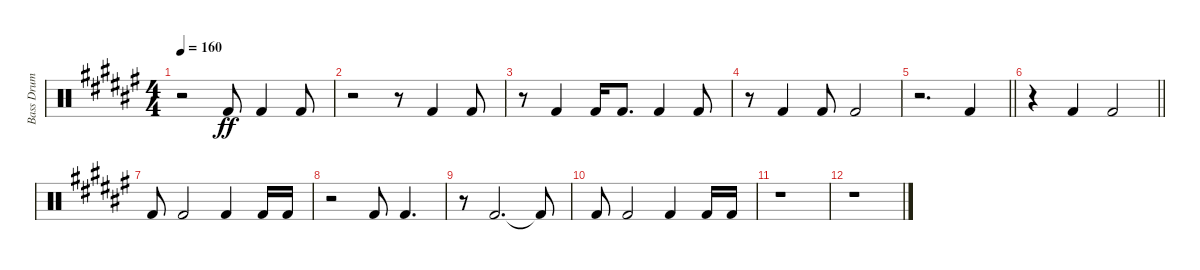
\track ("Bass Drum" "Bass Drum") {instrument percussion}
\staff {score}
\articulation defaults
\ts (4 4)
\tempo 160
\clef neutral
\ks d#minor
r.2{dy ff} "Kick (hit) 2".8 "Kick (hit) 2".4 "Kick (hit) 2".8 |
r.2 r.8 "Kick (hit) 2".4 "Kick (hit) 2".8 |
r.8 "Kick (hit) 2".4 "Kick (hit) 2".16 "Kick (hit) 2".8{d} "Kick (hit) 2".4 "Kick (hit) 2".8 |
r.8 "Kick (hit) 2".4 "Kick (hit) 2".8 "Kick (hit) 2".2 |
\barLineRight lightlight
r.2{d} "Kick (hit) 2".4 |
\barLineRight lightlight
r.4 "Kick (hit) 2".4 "Kick (hit) 2".2 |
"Kick (hit) 2".8 "Kick (hit) 2".2 "Kick (hit) 2".4 "Kick (hit) 2".16 "Kick (hit) 2".16 |
r.2 "Kick (hit) 2".8 "Kick (hit) 2".4{d} |
r.8 "Kick (hit) 2".2{d} "Kick (hit) 2"{t}.8 |
"Kick (hit) 2".8 "Kick (hit) 2".2 "Kick (hit) 2".4 "Kick (hit) 2".16 "Kick (hit) 2".16 |
r.1 |
r.1
